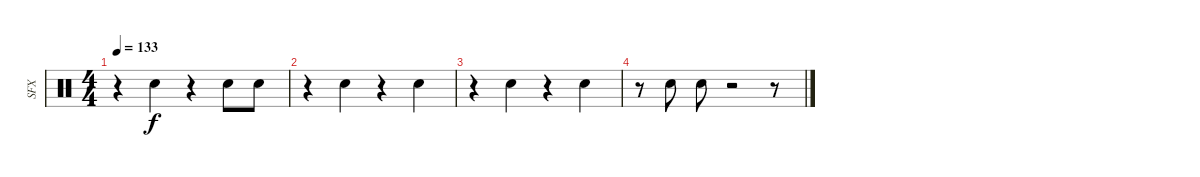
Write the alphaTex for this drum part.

\track ("SFX" "SFX") {instrument percussion}
\staff {score}
\articulation defaults
\ts (4 4)
\tempo 133
\clef neutral
\ks c
r.4{dy f} "Hand Clap (hit)".4 r.4 "Hand Clap (hit)".8 "Hand Clap (hit)".8 |
r.4 "Hand Clap (hit)".4 r.4 "Hand Clap (hit)".4 |
r.4 "Hand Clap (hit)".4 r.4 "Hand Clap (hit)".4 |
r.8 "Hand Clap (hit)".8 "Hand Clap (hit)".8 r.2 r.8
